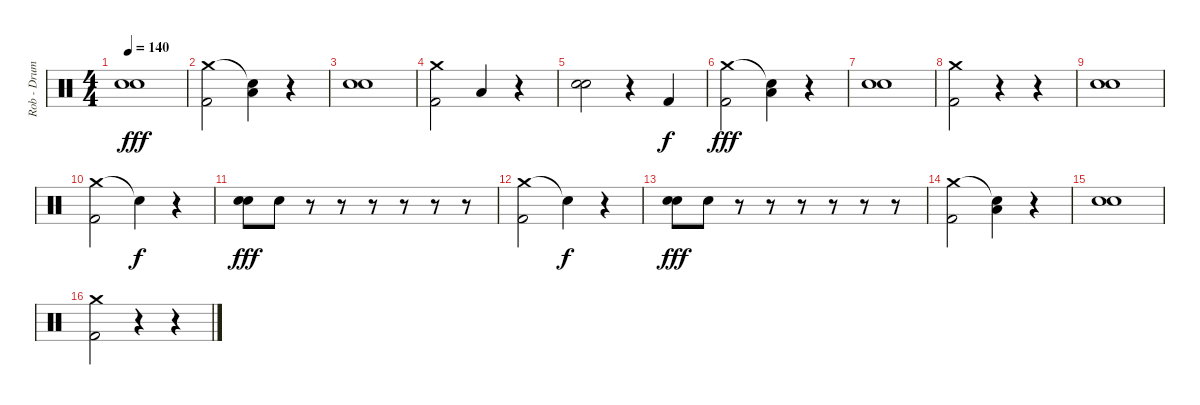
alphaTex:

\track ("Rob - Drums" "Rob - Drum") {instrument percussion}
\staff {score}
\articulation defaults
\ts (4 4)
\tempo 140
\clef neutral
\ks c
("Electric Snare (hit)" "Electric Snare (hit)").1{dy fff} |
("Crash medium (hit)" "Kick (hit) 2").2 ("Snare (hit)"{t} "Low Floor Tom (hit)").4 r.4 |
("Electric Snare (hit)" "Electric Snare (hit)").1 |
("Crash medium (hit)" "Kick (hit) 2").2 "Low Floor Tom (hit)".4 r.4 |
("Electric Snare (hit)" "Electric Snare (hit)").2 r.4 "Kick (hit) 2".4{dy f} |
("Crash medium (hit)" "Kick (hit) 2").2{dy fff} ("Snare (hit)"{t} "Low Floor Tom (hit)").4 r.4 |
("Electric Snare (hit)" "Electric Snare (hit)").1 |
("Crash medium (hit)" "Kick (hit) 2").2 r.4 r.4 |
("Electric Snare (hit)" "Electric Snare (hit)").1 |
("Crash medium (hit)" "Kick (hit) 2").2 "Snare (hit)"{t}.4{dy f} r.4 |
("Electric Snare (hit)" "Electric Snare (hit)").8{dy fff} "Electric Snare (hit)".8 r.8 r.8 r.8 r.8 r.8 r.8 |
("Crash medium (hit)" "Kick (hit) 2").2 "Snare (hit)"{t}.4{dy f} r.4 |
("Electric Snare (hit)" "Electric Snare (hit)").8{dy fff} "Electric Snare (hit)".8 r.8 r.8 r.8 r.8 r.8 r.8 |
("Crash medium (hit)" "Kick (hit) 2").2 ("Snare (hit)"{t} "Low Floor Tom (hit)").4 r.4 |
("Electric Snare (hit)" "Electric Snare (hit)").1 |
("Crash medium (hit)" "Kick (hit) 2").2 r.4 r.4
